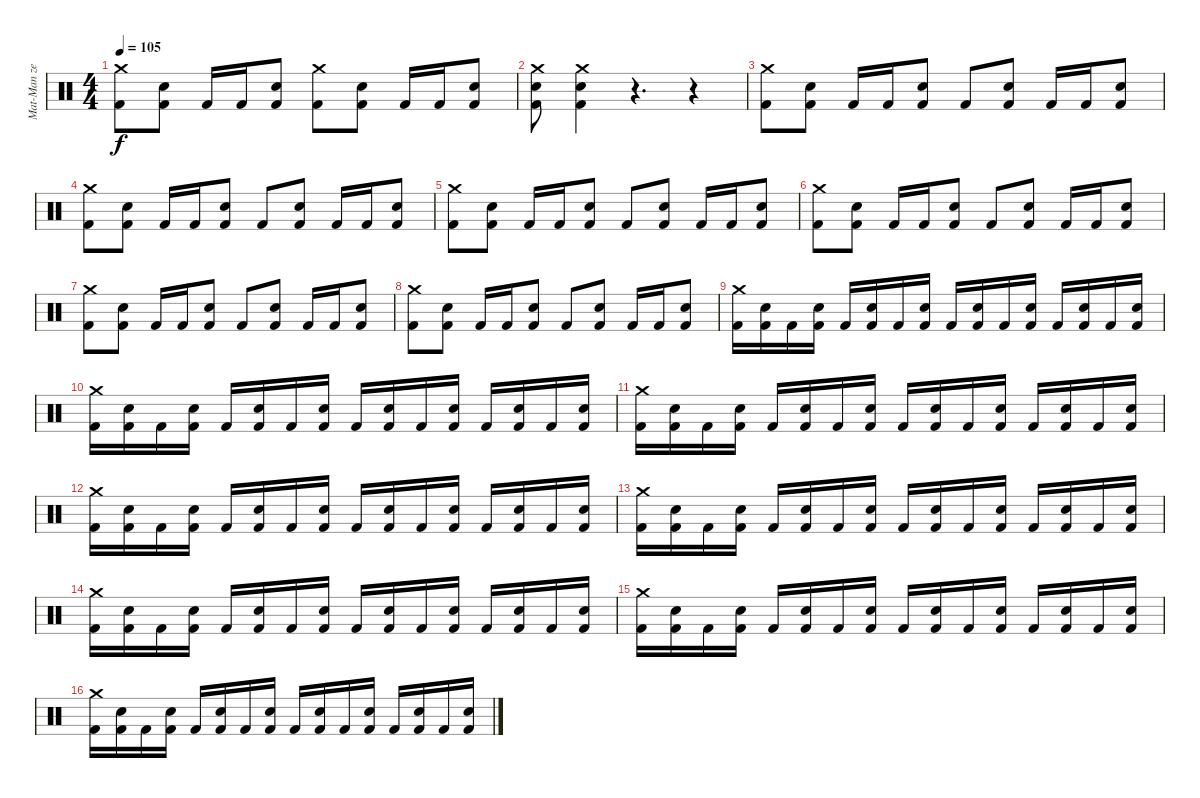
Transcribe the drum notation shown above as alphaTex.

\track ("Mat-Man ze defract" "Mat-Man ze") {instrument percussion}
\staff {score}
\articulation defaults
\ts (4 4)
\tempo 105
\clef neutral
\ks c
("Crash medium (hit)" "Kick (hit) 2").8{dy f} ("Snare (hit) 2" "Kick (hit) 2").8 "Kick (hit) 2".16 "Kick (hit) 2".16 ("Snare (hit) 2" "Kick (hit) 2").8 ("Crash medium (hit)" "Kick (hit) 2").8 ("Snare (hit) 2" "Kick (hit) 2").8 "Kick (hit) 2".16 "Kick (hit) 2".16 ("Snare (hit) 2" "Kick (hit) 2").8 |
("Crash medium (hit)" "Snare (hit) 2" "Kick (hit) 2").8 ("Crash medium (hit)" "Snare (hit) 2" "Kick (hit) 2").4 r.4{d} r.4 |
("Crash medium (hit)" "Kick (hit) 2").8 ("Snare (hit) 2" "Kick (hit) 2").8 "Kick (hit) 2".16 "Kick (hit) 2".16 ("Snare (hit) 2" "Kick (hit) 2").8 "Kick (hit) 2".8 ("Snare (hit) 2" "Kick (hit) 2").8 "Kick (hit) 2".16 "Kick (hit) 2".16 ("Snare (hit) 2" "Kick (hit) 2").8 |
("Crash medium (hit)" "Kick (hit) 2").8 ("Snare (hit) 2" "Kick (hit) 2").8 "Kick (hit) 2".16 "Kick (hit) 2".16 ("Snare (hit) 2" "Kick (hit) 2").8 "Kick (hit) 2".8 ("Snare (hit) 2" "Kick (hit) 2").8 "Kick (hit) 2".16 "Kick (hit) 2".16 ("Snare (hit) 2" "Kick (hit) 2").8 |
("Crash medium (hit)" "Kick (hit) 2").8 ("Snare (hit) 2" "Kick (hit) 2").8 "Kick (hit) 2".16 "Kick (hit) 2".16 ("Snare (hit) 2" "Kick (hit) 2").8 "Kick (hit) 2".8 ("Snare (hit) 2" "Kick (hit) 2").8 "Kick (hit) 2".16 "Kick (hit) 2".16 ("Snare (hit) 2" "Kick (hit) 2").8 |
("Crash medium (hit)" "Kick (hit) 2").8 ("Snare (hit) 2" "Kick (hit) 2").8 "Kick (hit) 2".16 "Kick (hit) 2".16 ("Snare (hit) 2" "Kick (hit) 2").8 "Kick (hit) 2".8 ("Snare (hit) 2" "Kick (hit) 2").8 "Kick (hit) 2".16 "Kick (hit) 2".16 ("Snare (hit) 2" "Kick (hit) 2").8 |
("Crash medium (hit)" "Kick (hit) 2").8 ("Snare (hit) 2" "Kick (hit) 2").8 "Kick (hit) 2".16 "Kick (hit) 2".16 ("Snare (hit) 2" "Kick (hit) 2").8 "Kick (hit) 2".8 ("Snare (hit) 2" "Kick (hit) 2").8 "Kick (hit) 2".16 "Kick (hit) 2".16 ("Snare (hit) 2" "Kick (hit) 2").8 |
("Crash medium (hit)" "Kick (hit) 2").8 ("Snare (hit) 2" "Kick (hit) 2").8 "Kick (hit) 2".16 "Kick (hit) 2".16 ("Snare (hit) 2" "Kick (hit) 2").8 "Kick (hit) 2".8 ("Snare (hit) 2" "Kick (hit) 2").8 "Kick (hit) 2".16 "Kick (hit) 2".16 ("Snare (hit) 2" "Kick (hit) 2").8 |
("Crash medium (hit)" "Kick (hit) 2").16 ("Snare (hit) 2" "Kick (hit) 2").16 "Kick (hit) 2".16 ("Snare (hit) 2" "Kick (hit) 2").16 "Kick (hit) 2".16 ("Snare (hit) 2" "Kick (hit) 2").16 "Kick (hit) 2".16 ("Snare (hit) 2" "Kick (hit) 2").16 "Kick (hit) 2".16 ("Snare (hit) 2" "Kick (hit) 2").16 "Kick (hit) 2".16 ("Snare (hit) 2" "Kick (hit) 2").16 "Kick (hit) 2".16 ("Snare (hit) 2" "Kick (hit) 2").16 "Kick (hit) 2".16 ("Snare (hit) 2" "Kick (hit) 2").16 |
("Crash medium (hit)" "Kick (hit) 2").16 ("Snare (hit) 2" "Kick (hit) 2").16 "Kick (hit) 2".16 ("Snare (hit) 2" "Kick (hit) 2").16 "Kick (hit) 2".16 ("Snare (hit) 2" "Kick (hit) 2").16 "Kick (hit) 2".16 ("Snare (hit) 2" "Kick (hit) 2").16 "Kick (hit) 2".16 ("Snare (hit) 2" "Kick (hit) 2").16 "Kick (hit) 2".16 ("Snare (hit) 2" "Kick (hit) 2").16 "Kick (hit) 2".16 ("Snare (hit) 2" "Kick (hit) 2").16 "Kick (hit) 2".16 ("Snare (hit) 2" "Kick (hit) 2").16 |
("Crash medium (hit)" "Kick (hit) 2").16 ("Snare (hit) 2" "Kick (hit) 2").16 "Kick (hit) 2".16 ("Snare (hit) 2" "Kick (hit) 2").16 "Kick (hit) 2".16 ("Snare (hit) 2" "Kick (hit) 2").16 "Kick (hit) 2".16 ("Snare (hit) 2" "Kick (hit) 2").16 "Kick (hit) 2".16 ("Snare (hit) 2" "Kick (hit) 2").16 "Kick (hit) 2".16 ("Snare (hit) 2" "Kick (hit) 2").16 "Kick (hit) 2".16 ("Snare (hit) 2" "Kick (hit) 2").16 "Kick (hit) 2".16 ("Snare (hit) 2" "Kick (hit) 2").16 |
("Crash medium (hit)" "Kick (hit) 2").16 ("Snare (hit) 2" "Kick (hit) 2").16 "Kick (hit) 2".16 ("Snare (hit) 2" "Kick (hit) 2").16 "Kick (hit) 2".16 ("Snare (hit) 2" "Kick (hit) 2").16 "Kick (hit) 2".16 ("Snare (hit) 2" "Kick (hit) 2").16 "Kick (hit) 2".16 ("Snare (hit) 2" "Kick (hit) 2").16 "Kick (hit) 2".16 ("Snare (hit) 2" "Kick (hit) 2").16 "Kick (hit) 2".16 ("Snare (hit) 2" "Kick (hit) 2").16 "Kick (hit) 2".16 ("Snare (hit) 2" "Kick (hit) 2").16 |
("Crash medium (hit)" "Kick (hit) 2").16 ("Snare (hit) 2" "Kick (hit) 2").16 "Kick (hit) 2".16 ("Snare (hit) 2" "Kick (hit) 2").16 "Kick (hit) 2".16 ("Snare (hit) 2" "Kick (hit) 2").16 "Kick (hit) 2".16 ("Snare (hit) 2" "Kick (hit) 2").16 "Kick (hit) 2".16 ("Snare (hit) 2" "Kick (hit) 2").16 "Kick (hit) 2".16 ("Snare (hit) 2" "Kick (hit) 2").16 "Kick (hit) 2".16 ("Snare (hit) 2" "Kick (hit) 2").16 "Kick (hit) 2".16 ("Snare (hit) 2" "Kick (hit) 2").16 |
("Crash medium (hit)" "Kick (hit) 2").16 ("Snare (hit) 2" "Kick (hit) 2").16 "Kick (hit) 2".16 ("Snare (hit) 2" "Kick (hit) 2").16 "Kick (hit) 2".16 ("Snare (hit) 2" "Kick (hit) 2").16 "Kick (hit) 2".16 ("Snare (hit) 2" "Kick (hit) 2").16 "Kick (hit) 2".16 ("Snare (hit) 2" "Kick (hit) 2").16 "Kick (hit) 2".16 ("Snare (hit) 2" "Kick (hit) 2").16 "Kick (hit) 2".16 ("Snare (hit) 2" "Kick (hit) 2").16 "Kick (hit) 2".16 ("Snare (hit) 2" "Kick (hit) 2").16 |
("Crash medium (hit)" "Kick (hit) 2").16 ("Snare (hit) 2" "Kick (hit) 2").16 "Kick (hit) 2".16 ("Snare (hit) 2" "Kick (hit) 2").16 "Kick (hit) 2".16 ("Snare (hit) 2" "Kick (hit) 2").16 "Kick (hit) 2".16 ("Snare (hit) 2" "Kick (hit) 2").16 "Kick (hit) 2".16 ("Snare (hit) 2" "Kick (hit) 2").16 "Kick (hit) 2".16 ("Snare (hit) 2" "Kick (hit) 2").16 "Kick (hit) 2".16 ("Snare (hit) 2" "Kick (hit) 2").16 "Kick (hit) 2".16 ("Snare (hit) 2" "Kick (hit) 2").16 |
("Crash medium (hit)" "Kick (hit) 2").16 ("Snare (hit) 2" "Kick (hit) 2").16 "Kick (hit) 2".16 ("Snare (hit) 2" "Kick (hit) 2").16 "Kick (hit) 2".16 ("Snare (hit) 2" "Kick (hit) 2").16 "Kick (hit) 2".16 ("Snare (hit) 2" "Kick (hit) 2").16 "Kick (hit) 2".16 ("Snare (hit) 2" "Kick (hit) 2").16 "Kick (hit) 2".16 ("Snare (hit) 2" "Kick (hit) 2").16 "Kick (hit) 2".16 ("Snare (hit) 2" "Kick (hit) 2").16 "Kick (hit) 2".16 ("Snare (hit) 2" "Kick (hit) 2").16
